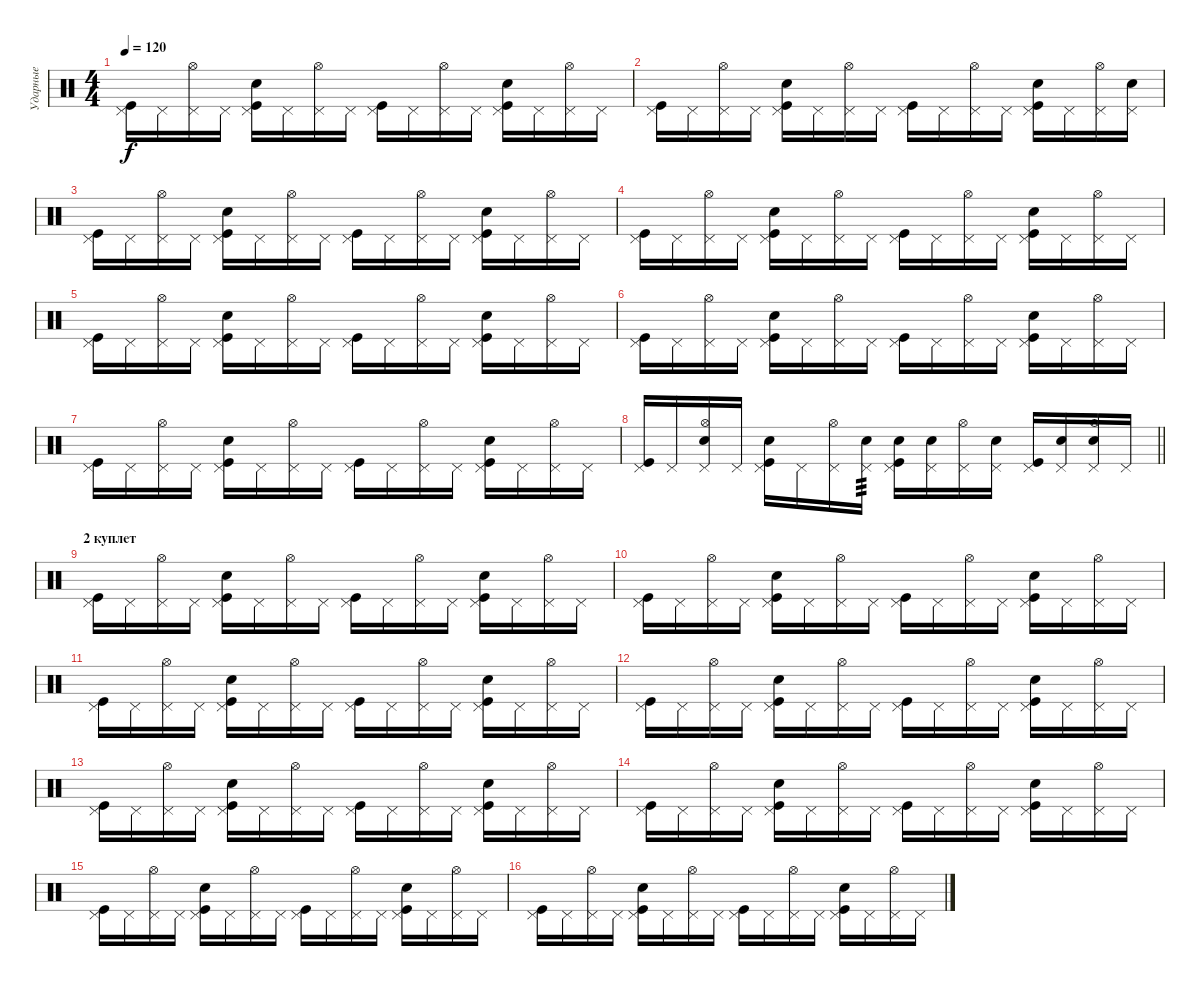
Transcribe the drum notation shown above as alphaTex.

\track ("Ударные" "Ударные") {instrument percussion}
\staff {score}
\articulation defaults
\ts (4 4)
\tempo 120
\clef neutral
\ks c
("Pedal Hi-Hat (hit)" "Kick (hit)").16{dy f} "Pedal Hi-Hat (hit)".16 ("Pedal Hi-Hat (hit)" "Hi-Hat (open)").16 "Pedal Hi-Hat (hit)".16 ("Pedal Hi-Hat (hit)" "Kick (hit)" "Snare (hit) 2").16 "Pedal Hi-Hat (hit)".16 ("Pedal Hi-Hat (hit)" "Hi-Hat (open)").16 "Pedal Hi-Hat (hit)".16 ("Pedal Hi-Hat (hit)" "Kick (hit)").16 "Pedal Hi-Hat (hit)".16 ("Pedal Hi-Hat (hit)" "Hi-Hat (open)").16 "Pedal Hi-Hat (hit)".16 ("Pedal Hi-Hat (hit)" "Kick (hit)" "Snare (hit) 2").16 "Pedal Hi-Hat (hit)".16 ("Pedal Hi-Hat (hit)" "Hi-Hat (open)").16 "Pedal Hi-Hat (hit)".16 |
("Pedal Hi-Hat (hit)" "Kick (hit)").16 "Pedal Hi-Hat (hit)".16 ("Pedal Hi-Hat (hit)" "Hi-Hat (open)").16 "Pedal Hi-Hat (hit)".16 ("Pedal Hi-Hat (hit)" "Kick (hit)" "Snare (hit) 2").16 "Pedal Hi-Hat (hit)".16 ("Pedal Hi-Hat (hit)" "Hi-Hat (open)").16 "Pedal Hi-Hat (hit)".16 ("Pedal Hi-Hat (hit)" "Kick (hit)").16 "Pedal Hi-Hat (hit)".16 ("Pedal Hi-Hat (hit)" "Hi-Hat (open)").16 "Pedal Hi-Hat (hit)".16 ("Pedal Hi-Hat (hit)" "Kick (hit)" "Snare (hit) 2").16 "Pedal Hi-Hat (hit)".16 ("Pedal Hi-Hat (hit)" "Hi-Hat (open)").16 ("Pedal Hi-Hat (hit)" "Snare (hit) 2").16 |
("Pedal Hi-Hat (hit)" "Kick (hit)").16 "Pedal Hi-Hat (hit)".16 ("Pedal Hi-Hat (hit)" "Hi-Hat (open)").16 "Pedal Hi-Hat (hit)".16 ("Pedal Hi-Hat (hit)" "Kick (hit)" "Snare (hit) 2").16 "Pedal Hi-Hat (hit)".16 ("Pedal Hi-Hat (hit)" "Hi-Hat (open)").16 "Pedal Hi-Hat (hit)".16 ("Pedal Hi-Hat (hit)" "Kick (hit)").16 "Pedal Hi-Hat (hit)".16 ("Pedal Hi-Hat (hit)" "Hi-Hat (open)").16 "Pedal Hi-Hat (hit)".16 ("Pedal Hi-Hat (hit)" "Kick (hit)" "Snare (hit) 2").16 "Pedal Hi-Hat (hit)".16 ("Pedal Hi-Hat (hit)" "Hi-Hat (open)").16 "Pedal Hi-Hat (hit)".16 |
("Pedal Hi-Hat (hit)" "Kick (hit)").16 "Pedal Hi-Hat (hit)".16 ("Pedal Hi-Hat (hit)" "Hi-Hat (open)").16 "Pedal Hi-Hat (hit)".16 ("Pedal Hi-Hat (hit)" "Kick (hit)" "Snare (hit) 2").16 "Pedal Hi-Hat (hit)".16 ("Pedal Hi-Hat (hit)" "Hi-Hat (open)").16 "Pedal Hi-Hat (hit)".16 ("Pedal Hi-Hat (hit)" "Kick (hit)").16 "Pedal Hi-Hat (hit)".16 ("Pedal Hi-Hat (hit)" "Hi-Hat (open)").16 "Pedal Hi-Hat (hit)".16 ("Pedal Hi-Hat (hit)" "Kick (hit)" "Snare (hit) 2").16 "Pedal Hi-Hat (hit)".16 ("Pedal Hi-Hat (hit)" "Hi-Hat (open)").16 "Pedal Hi-Hat (hit)".16 |
("Pedal Hi-Hat (hit)" "Kick (hit)").16 "Pedal Hi-Hat (hit)".16 ("Pedal Hi-Hat (hit)" "Hi-Hat (open)").16 "Pedal Hi-Hat (hit)".16 ("Pedal Hi-Hat (hit)" "Kick (hit)" "Snare (hit) 2").16 "Pedal Hi-Hat (hit)".16 ("Pedal Hi-Hat (hit)" "Hi-Hat (open)").16 "Pedal Hi-Hat (hit)".16 ("Pedal Hi-Hat (hit)" "Kick (hit)").16 "Pedal Hi-Hat (hit)".16 ("Pedal Hi-Hat (hit)" "Hi-Hat (open)").16 "Pedal Hi-Hat (hit)".16 ("Pedal Hi-Hat (hit)" "Kick (hit)" "Snare (hit) 2").16 "Pedal Hi-Hat (hit)".16 ("Pedal Hi-Hat (hit)" "Hi-Hat (open)").16 "Pedal Hi-Hat (hit)".16 |
("Pedal Hi-Hat (hit)" "Kick (hit)").16 "Pedal Hi-Hat (hit)".16 ("Pedal Hi-Hat (hit)" "Hi-Hat (open)").16 "Pedal Hi-Hat (hit)".16 ("Pedal Hi-Hat (hit)" "Kick (hit)" "Snare (hit) 2").16 "Pedal Hi-Hat (hit)".16 ("Pedal Hi-Hat (hit)" "Hi-Hat (open)").16 "Pedal Hi-Hat (hit)".16 ("Pedal Hi-Hat (hit)" "Kick (hit)").16 "Pedal Hi-Hat (hit)".16 ("Pedal Hi-Hat (hit)" "Hi-Hat (open)").16 "Pedal Hi-Hat (hit)".16 ("Pedal Hi-Hat (hit)" "Kick (hit)" "Snare (hit) 2").16 "Pedal Hi-Hat (hit)".16 ("Pedal Hi-Hat (hit)" "Hi-Hat (open)").16 "Pedal Hi-Hat (hit)".16 |
("Pedal Hi-Hat (hit)" "Kick (hit)").16 "Pedal Hi-Hat (hit)".16 ("Pedal Hi-Hat (hit)" "Hi-Hat (open)").16 "Pedal Hi-Hat (hit)".16 ("Pedal Hi-Hat (hit)" "Kick (hit)" "Snare (hit) 2").16 "Pedal Hi-Hat (hit)".16 ("Pedal Hi-Hat (hit)" "Hi-Hat (open)").16 "Pedal Hi-Hat (hit)".16 ("Pedal Hi-Hat (hit)" "Kick (hit)").16 "Pedal Hi-Hat (hit)".16 ("Pedal Hi-Hat (hit)" "Hi-Hat (open)").16 "Pedal Hi-Hat (hit)".16 ("Pedal Hi-Hat (hit)" "Kick (hit)" "Snare (hit) 2").16 "Pedal Hi-Hat (hit)".16 ("Pedal Hi-Hat (hit)" "Hi-Hat (open)").16 "Pedal Hi-Hat (hit)".16 |
\barLineRight lightlight
("Pedal Hi-Hat (hit)" "Kick (hit)").16 "Pedal Hi-Hat (hit)".16 ("Pedal Hi-Hat (hit)" "Hi-Hat (open)" "Snare (hit) 2").16 "Pedal Hi-Hat (hit)".16 ("Pedal Hi-Hat (hit)" "Kick (hit)" "Snare (hit) 2").16 "Pedal Hi-Hat (hit)".16 ("Pedal Hi-Hat (hit)" "Hi-Hat (open)").16 ("Pedal Hi-Hat (hit)" "Snare (hit) 2").16{tp 3} ("Pedal Hi-Hat (hit)" "Kick (hit)" "Snare (hit) 2").16 ("Pedal Hi-Hat (hit)" "Snare (hit) 2").16 ("Pedal Hi-Hat (hit)" "Hi-Hat (open)").16 ("Pedal Hi-Hat (hit)" "Snare (hit) 2").16 ("Pedal Hi-Hat (hit)" "Kick (hit)").16 ("Pedal Hi-Hat (hit)" "Snare (hit) 2").16 ("Pedal Hi-Hat (hit)" "Hi-Hat (open)" "Snare (hit) 2").16 "Pedal Hi-Hat (hit)".16 |
\section ("" "2 куплет")
("Pedal Hi-Hat (hit)" "Kick (hit)").16 "Pedal Hi-Hat (hit)".16 ("Pedal Hi-Hat (hit)" "Hi-Hat (open)").16 "Pedal Hi-Hat (hit)".16 ("Pedal Hi-Hat (hit)" "Kick (hit)" "Snare (hit) 2").16 "Pedal Hi-Hat (hit)".16 ("Pedal Hi-Hat (hit)" "Hi-Hat (open)").16 "Pedal Hi-Hat (hit)".16 ("Pedal Hi-Hat (hit)" "Kick (hit)").16 "Pedal Hi-Hat (hit)".16 ("Pedal Hi-Hat (hit)" "Hi-Hat (open)").16 "Pedal Hi-Hat (hit)".16 ("Pedal Hi-Hat (hit)" "Kick (hit)" "Snare (hit) 2").16 "Pedal Hi-Hat (hit)".16 ("Pedal Hi-Hat (hit)" "Hi-Hat (open)").16 "Pedal Hi-Hat (hit)".16 |
("Pedal Hi-Hat (hit)" "Kick (hit)").16 "Pedal Hi-Hat (hit)".16 ("Pedal Hi-Hat (hit)" "Hi-Hat (open)").16 "Pedal Hi-Hat (hit)".16 ("Pedal Hi-Hat (hit)" "Kick (hit)" "Snare (hit) 2").16 "Pedal Hi-Hat (hit)".16 ("Pedal Hi-Hat (hit)" "Hi-Hat (open)").16 "Pedal Hi-Hat (hit)".16 ("Pedal Hi-Hat (hit)" "Kick (hit)").16 "Pedal Hi-Hat (hit)".16 ("Pedal Hi-Hat (hit)" "Hi-Hat (open)").16 "Pedal Hi-Hat (hit)".16 ("Pedal Hi-Hat (hit)" "Kick (hit)" "Snare (hit) 2").16 "Pedal Hi-Hat (hit)".16 ("Pedal Hi-Hat (hit)" "Hi-Hat (open)").16 "Pedal Hi-Hat (hit)".16 |
("Pedal Hi-Hat (hit)" "Kick (hit)").16 "Pedal Hi-Hat (hit)".16 ("Pedal Hi-Hat (hit)" "Hi-Hat (open)").16 "Pedal Hi-Hat (hit)".16 ("Pedal Hi-Hat (hit)" "Kick (hit)" "Snare (hit) 2").16 "Pedal Hi-Hat (hit)".16 ("Pedal Hi-Hat (hit)" "Hi-Hat (open)").16 "Pedal Hi-Hat (hit)".16 ("Pedal Hi-Hat (hit)" "Kick (hit)").16 "Pedal Hi-Hat (hit)".16 ("Pedal Hi-Hat (hit)" "Hi-Hat (open)").16 "Pedal Hi-Hat (hit)".16 ("Pedal Hi-Hat (hit)" "Kick (hit)" "Snare (hit) 2").16 "Pedal Hi-Hat (hit)".16 ("Pedal Hi-Hat (hit)" "Hi-Hat (open)").16 "Pedal Hi-Hat (hit)".16 |
("Pedal Hi-Hat (hit)" "Kick (hit)").16 "Pedal Hi-Hat (hit)".16 ("Pedal Hi-Hat (hit)" "Hi-Hat (open)").16 "Pedal Hi-Hat (hit)".16 ("Pedal Hi-Hat (hit)" "Kick (hit)" "Snare (hit) 2").16 "Pedal Hi-Hat (hit)".16 ("Pedal Hi-Hat (hit)" "Hi-Hat (open)").16 "Pedal Hi-Hat (hit)".16 ("Pedal Hi-Hat (hit)" "Kick (hit)").16 "Pedal Hi-Hat (hit)".16 ("Pedal Hi-Hat (hit)" "Hi-Hat (open)").16 "Pedal Hi-Hat (hit)".16 ("Pedal Hi-Hat (hit)" "Kick (hit)" "Snare (hit) 2").16 "Pedal Hi-Hat (hit)".16 ("Pedal Hi-Hat (hit)" "Hi-Hat (open)").16 "Pedal Hi-Hat (hit)".16 |
("Pedal Hi-Hat (hit)" "Kick (hit)").16 "Pedal Hi-Hat (hit)".16 ("Pedal Hi-Hat (hit)" "Hi-Hat (open)").16 "Pedal Hi-Hat (hit)".16 ("Pedal Hi-Hat (hit)" "Kick (hit)" "Snare (hit) 2").16 "Pedal Hi-Hat (hit)".16 ("Pedal Hi-Hat (hit)" "Hi-Hat (open)").16 "Pedal Hi-Hat (hit)".16 ("Pedal Hi-Hat (hit)" "Kick (hit)").16 "Pedal Hi-Hat (hit)".16 ("Pedal Hi-Hat (hit)" "Hi-Hat (open)").16 "Pedal Hi-Hat (hit)".16 ("Pedal Hi-Hat (hit)" "Kick (hit)" "Snare (hit) 2").16 "Pedal Hi-Hat (hit)".16 ("Pedal Hi-Hat (hit)" "Hi-Hat (open)").16 "Pedal Hi-Hat (hit)".16 |
("Pedal Hi-Hat (hit)" "Kick (hit)").16 "Pedal Hi-Hat (hit)".16 ("Pedal Hi-Hat (hit)" "Hi-Hat (open)").16 "Pedal Hi-Hat (hit)".16 ("Pedal Hi-Hat (hit)" "Kick (hit)" "Snare (hit) 2").16 "Pedal Hi-Hat (hit)".16 ("Pedal Hi-Hat (hit)" "Hi-Hat (open)").16 "Pedal Hi-Hat (hit)".16 ("Pedal Hi-Hat (hit)" "Kick (hit)").16 "Pedal Hi-Hat (hit)".16 ("Pedal Hi-Hat (hit)" "Hi-Hat (open)").16 "Pedal Hi-Hat (hit)".16 ("Pedal Hi-Hat (hit)" "Kick (hit)" "Snare (hit) 2").16 "Pedal Hi-Hat (hit)".16 ("Pedal Hi-Hat (hit)" "Hi-Hat (open)").16 "Pedal Hi-Hat (hit)".16 |
("Pedal Hi-Hat (hit)" "Kick (hit)").16 "Pedal Hi-Hat (hit)".16 ("Pedal Hi-Hat (hit)" "Hi-Hat (open)").16 "Pedal Hi-Hat (hit)".16 ("Pedal Hi-Hat (hit)" "Kick (hit)" "Snare (hit) 2").16 "Pedal Hi-Hat (hit)".16 ("Pedal Hi-Hat (hit)" "Hi-Hat (open)").16 "Pedal Hi-Hat (hit)".16 ("Pedal Hi-Hat (hit)" "Kick (hit)").16 "Pedal Hi-Hat (hit)".16 ("Pedal Hi-Hat (hit)" "Hi-Hat (open)").16 "Pedal Hi-Hat (hit)".16 ("Pedal Hi-Hat (hit)" "Kick (hit)" "Snare (hit) 2").16 "Pedal Hi-Hat (hit)".16 ("Pedal Hi-Hat (hit)" "Hi-Hat (open)").16 "Pedal Hi-Hat (hit)".16 |
("Pedal Hi-Hat (hit)" "Kick (hit)").16 "Pedal Hi-Hat (hit)".16 ("Pedal Hi-Hat (hit)" "Hi-Hat (open)").16 "Pedal Hi-Hat (hit)".16 ("Pedal Hi-Hat (hit)" "Kick (hit)" "Snare (hit) 2").16 "Pedal Hi-Hat (hit)".16 ("Pedal Hi-Hat (hit)" "Hi-Hat (open)").16 "Pedal Hi-Hat (hit)".16 ("Pedal Hi-Hat (hit)" "Kick (hit)").16 "Pedal Hi-Hat (hit)".16 ("Pedal Hi-Hat (hit)" "Hi-Hat (open)").16 "Pedal Hi-Hat (hit)".16 ("Pedal Hi-Hat (hit)" "Kick (hit)" "Snare (hit) 2").16 "Pedal Hi-Hat (hit)".16 ("Pedal Hi-Hat (hit)" "Hi-Hat (open)").16 "Pedal Hi-Hat (hit)".16
